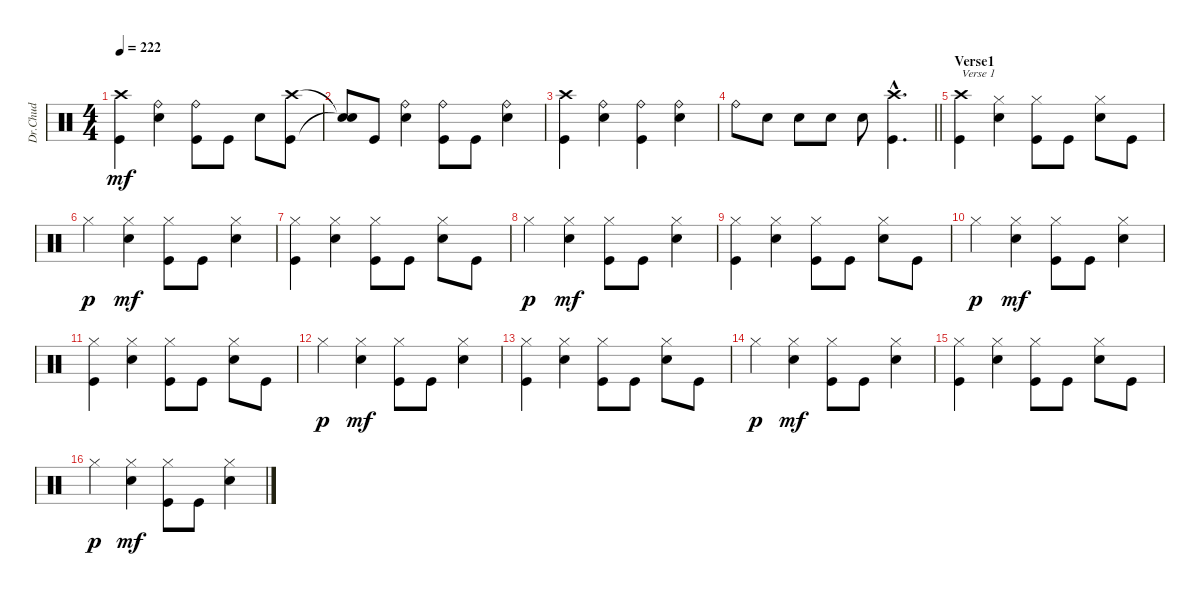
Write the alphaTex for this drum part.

\track ("Dr.Chud" "Dr.Chud") {instrument percussion}
\staff {score}
\articulation defaults
\ts (4 4)
\tempo 222
\clef neutral
\ks c
("Crash high (hit)" "Kick (hit)").4{dy mf} ("Ride (bell)" "Electric Snare (hit)").4 ("Ride (bell)" "Kick (hit)").8 "Kick (hit)".8 "Electric Snare (hit)".8 ("Crash high (hit)" "Kick (hit)").8 |
("Snare (hit)"{t} "Snare (hit)"{t}).8 "Kick (hit)".8 ("Ride (bell)" "Electric Snare (hit)").4 ("Ride (bell)" "Kick (hit)").8 "Kick (hit)".8 ("Ride (bell)" "Electric Snare (hit)").4 |
("Crash high (hit)" "Kick (hit)").4 ("Ride (bell)" "Electric Snare (hit)").4 ("Ride (bell)" "Kick (hit)").4 ("Ride (bell)" "Electric Snare (hit)").4 |
\barLineRight lightlight "Ride (bell)".8 "Electric Snare (hit)".8 "Electric Snare (hit)".8 "Electric Snare (hit)".8 "Electric Snare (hit)".8
("Crash high (hit)"{hac} "Kick (hit)"{hac}).4{d} |
\section ("" "Verse1")
("Crash high (hit)" "Kick (hit)").4{txt "Verse 1"} ("Hi-Hat (closed)" "Electric Snare (hit)").4 ("Hi-Hat (closed)" "Kick (hit)").8 "Kick (hit)".8 ("Hi-Hat (closed)" "Electric Snare (hit)").8 "Kick (hit)".8 |
"Hi-Hat (closed)".4{dy p} ("Hi-Hat (closed)" "Electric Snare (hit)").4{dy mf} ("Hi-Hat (closed)" "Kick (hit)").8 "Kick (hit)".8 ("Hi-Hat (closed)" "Electric Snare (hit)").4 |
("Hi-Hat (closed)" "Kick (hit)").4 ("Hi-Hat (closed)" "Electric Snare (hit)").4 ("Hi-Hat (closed)" "Kick (hit)").8 "Kick (hit)".8 ("Hi-Hat (closed)" "Electric Snare (hit)").8 "Kick (hit)".8 |
"Hi-Hat (closed)".4{dy p} ("Hi-Hat (closed)" "Electric Snare (hit)").4{dy mf} ("Hi-Hat (closed)" "Kick (hit)").8 "Kick (hit)".8 ("Hi-Hat (closed)" "Electric Snare (hit)").4 |
("Hi-Hat (closed)" "Kick (hit)").4 ("Hi-Hat (closed)" "Electric Snare (hit)").4 ("Hi-Hat (closed)" "Kick (hit)").8 "Kick (hit)".8 ("Hi-Hat (closed)" "Electric Snare (hit)").8 "Kick (hit)".8 |
"Hi-Hat (closed)".4{dy p} ("Hi-Hat (closed)" "Electric Snare (hit)").4{dy mf} ("Hi-Hat (closed)" "Kick (hit)").8 "Kick (hit)".8 ("Hi-Hat (closed)" "Electric Snare (hit)").4 |
("Hi-Hat (closed)" "Kick (hit)").4 ("Hi-Hat (closed)" "Electric Snare (hit)").4 ("Hi-Hat (closed)" "Kick (hit)").8 "Kick (hit)".8 ("Hi-Hat (closed)" "Electric Snare (hit)").8 "Kick (hit)".8 |
"Hi-Hat (closed)".4{dy p} ("Hi-Hat (closed)" "Electric Snare (hit)").4{dy mf} ("Hi-Hat (closed)" "Kick (hit)").8 "Kick (hit)".8 ("Hi-Hat (closed)" "Electric Snare (hit)").4 |
("Hi-Hat (closed)" "Kick (hit)").4 ("Hi-Hat (closed)" "Electric Snare (hit)").4 ("Hi-Hat (closed)" "Kick (hit)").8 "Kick (hit)".8 ("Hi-Hat (closed)" "Electric Snare (hit)").8 "Kick (hit)".8 |
"Hi-Hat (closed)".4{dy p} ("Hi-Hat (closed)" "Electric Snare (hit)").4{dy mf} ("Hi-Hat (closed)" "Kick (hit)").8 "Kick (hit)".8 ("Hi-Hat (closed)" "Electric Snare (hit)").4 |
("Hi-Hat (closed)" "Kick (hit)").4 ("Hi-Hat (closed)" "Electric Snare (hit)").4 ("Hi-Hat (closed)" "Kick (hit)").8 "Kick (hit)".8 ("Hi-Hat (closed)" "Electric Snare (hit)").8 "Kick (hit)".8 |
"Hi-Hat (closed)".4{dy p} ("Hi-Hat (closed)" "Electric Snare (hit)").4{dy mf} ("Hi-Hat (closed)" "Kick (hit)").8 "Kick (hit)".8 ("Hi-Hat (closed)" "Electric Snare (hit)").4
